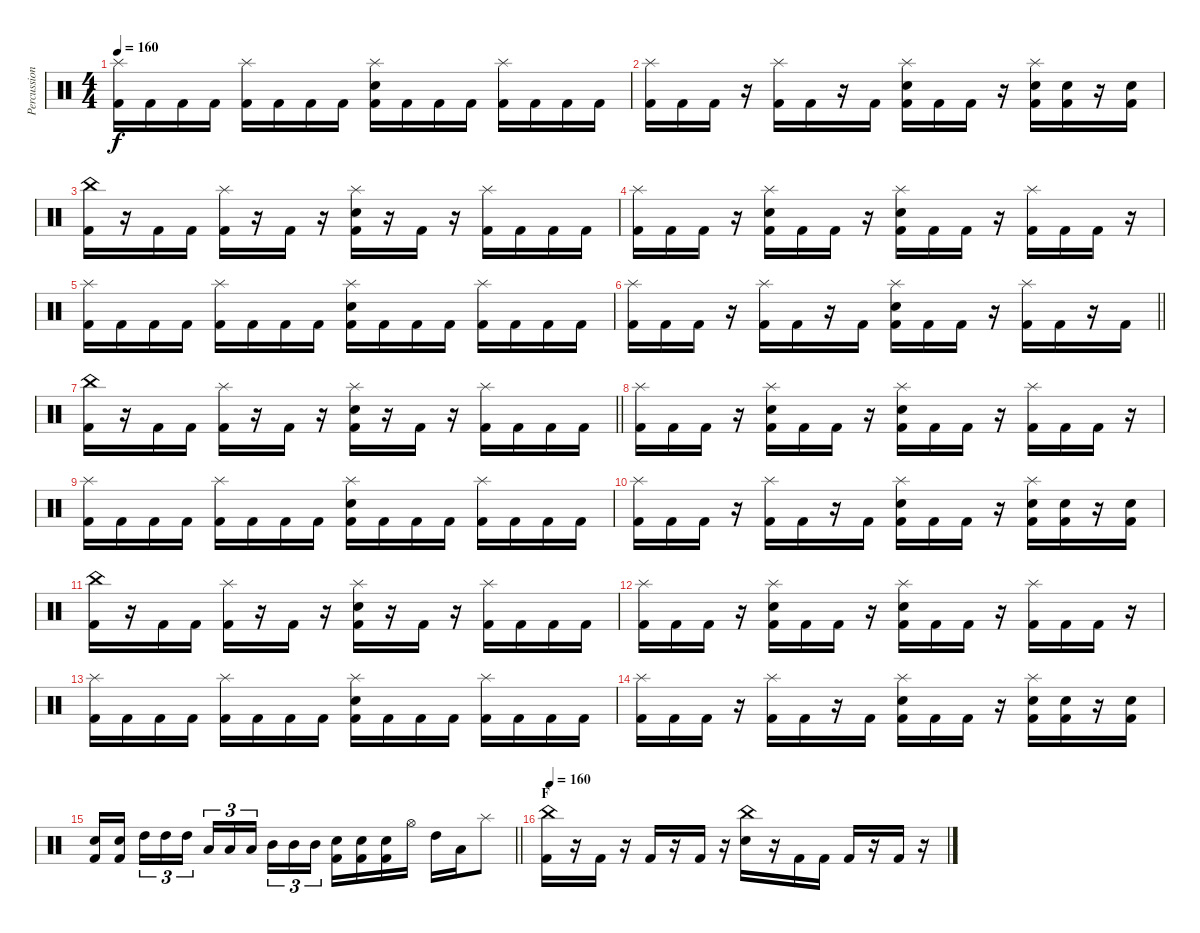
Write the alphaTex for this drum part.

\track ("Percussion" "Percussion") {instrument percussion}
\staff {score}
\articulation defaults
\ts (4 4)
\tempo 160
\clef neutral
\ks c
("Splash (hit)" "Kick (hit) 2").16{dy f} "Kick (hit) 2".16 "Kick (hit) 2".16 "Kick (hit) 2".16 ("Splash (hit)" "Kick (hit) 2").16 "Kick (hit) 2".16 "Kick (hit) 2".16 "Kick (hit) 2".16 ("Splash (hit)" "Electric Snare (hit)" "Kick (hit) 2").16 "Kick (hit) 2".16 "Kick (hit) 2".16 "Kick (hit) 2".16 ("Splash (hit)" "Kick (hit) 2").16 "Kick (hit) 2".16 "Kick (hit) 2".16 "Kick (hit) 2".16 |
("Splash (hit)" "Kick (hit) 2").16 "Kick (hit) 2".16 "Kick (hit) 2".16 r.16 ("Splash (hit)" "Kick (hit) 2").16 "Kick (hit) 2".16 r.16 "Kick (hit) 2".16 ("Splash (hit)" "Electric Snare (hit)" "Kick (hit) 2").16 "Kick (hit) 2".16 "Kick (hit) 2".16 r.16 ("Splash (hit)" "Electric Snare (hit)" "Kick (hit) 2").16 ("Electric Snare (hit)" "Kick (hit) 2").16 r.16 ("Electric Snare (hit)" "Kick (hit) 2").16 |
("China (hit)" "Kick (hit) 2").16 r.16 "Kick (hit) 2".16 "Kick (hit) 2".16 ("Splash (hit)" "Kick (hit) 2").16 r.16 "Kick (hit) 2".16 r.16 ("Splash (hit)" "Electric Snare (hit)" "Kick (hit) 2").16 r.16 "Kick (hit) 2".16 r.16 ("Splash (hit)" "Kick (hit) 2").16 "Kick (hit) 2".16 "Kick (hit) 2".16 "Kick (hit) 2".16 |
("Splash (hit)" "Kick (hit) 2").16 "Kick (hit) 2".16 "Kick (hit) 2".16 r.16 ("Splash (hit)" "Electric Snare (hit)" "Kick (hit) 2").16 "Kick (hit) 2".16 "Kick (hit) 2".16 r.16 ("Splash (hit)" "Electric Snare (hit)" "Kick (hit) 2").16 "Kick (hit) 2".16 "Kick (hit) 2".16 r.16 ("Splash (hit)" "Kick (hit) 2").16 "Kick (hit) 2".16 "Kick (hit) 2".16 r.16 |
("Splash (hit)" "Kick (hit) 2").16 "Kick (hit) 2".16 "Kick (hit) 2".16 "Kick (hit) 2".16 ("Splash (hit)" "Kick (hit) 2").16 "Kick (hit) 2".16 "Kick (hit) 2".16 "Kick (hit) 2".16 ("Splash (hit)" "Electric Snare (hit)" "Kick (hit) 2").16 "Kick (hit) 2".16 "Kick (hit) 2".16 "Kick (hit) 2".16 ("Splash (hit)" "Kick (hit) 2").16 "Kick (hit) 2".16 "Kick (hit) 2".16 "Kick (hit) 2".16 |
\barLineRight lightlight
("Splash (hit)" "Kick (hit) 2").16 "Kick (hit) 2".16 "Kick (hit) 2".16 r.16 ("Splash (hit)" "Kick (hit) 2").16 "Kick (hit) 2".16 r.16 "Kick (hit) 2".16 ("Splash (hit)" "Electric Snare (hit)" "Kick (hit) 2").16 "Kick (hit) 2".16 "Kick (hit) 2".16 r.16 ("Splash (hit)" "Kick (hit) 2").16 "Kick (hit) 2".16 r.16 "Kick (hit) 2".16 |
\barLineRight lightlight
("China (hit)" "Kick (hit) 2").16 r.16 "Kick (hit) 2".16 "Kick (hit) 2".16 ("Splash (hit)" "Kick (hit) 2").16 r.16 "Kick (hit) 2".16 r.16 ("Splash (hit)" "Electric Snare (hit)" "Kick (hit) 2").16 r.16 "Kick (hit) 2".16 r.16 ("Splash (hit)" "Kick (hit) 2").16 "Kick (hit) 2".16 "Kick (hit) 2".16 "Kick (hit) 2".16 |
("Splash (hit)" "Kick (hit) 2").16 "Kick (hit) 2".16 "Kick (hit) 2".16 r.16 ("Splash (hit)" "Electric Snare (hit)" "Kick (hit) 2").16 "Kick (hit) 2".16 "Kick (hit) 2".16 r.16 ("Splash (hit)" "Electric Snare (hit)" "Kick (hit) 2").16 "Kick (hit) 2".16 "Kick (hit) 2".16 r.16 ("Splash (hit)" "Kick (hit) 2").16 "Kick (hit) 2".16 "Kick (hit) 2".16 r.16 |
("Splash (hit)" "Kick (hit) 2").16 "Kick (hit) 2".16 "Kick (hit) 2".16 "Kick (hit) 2".16 ("Splash (hit)" "Kick (hit) 2").16 "Kick (hit) 2".16 "Kick (hit) 2".16 "Kick (hit) 2".16 ("Splash (hit)" "Electric Snare (hit)" "Kick (hit) 2").16 "Kick (hit) 2".16 "Kick (hit) 2".16 "Kick (hit) 2".16 ("Splash (hit)" "Kick (hit) 2").16 "Kick (hit) 2".16 "Kick (hit) 2".16 "Kick (hit) 2".16 |
("Splash (hit)" "Kick (hit) 2").16 "Kick (hit) 2".16 "Kick (hit) 2".16 r.16 ("Splash (hit)" "Kick (hit) 2").16 "Kick (hit) 2".16 r.16 "Kick (hit) 2".16 ("Splash (hit)" "Electric Snare (hit)" "Kick (hit) 2").16 "Kick (hit) 2".16 "Kick (hit) 2".16 r.16 ("Splash (hit)" "Electric Snare (hit)" "Kick (hit) 2").16 ("Electric Snare (hit)" "Kick (hit) 2").16 r.16 ("Electric Snare (hit)" "Kick (hit) 2").16 |
("China (hit)" "Kick (hit) 2").16 r.16 "Kick (hit) 2".16 "Kick (hit) 2".16 ("Splash (hit)" "Kick (hit) 2").16 r.16 "Kick (hit) 2".16 r.16 ("Splash (hit)" "Electric Snare (hit)" "Kick (hit) 2").16 r.16 "Kick (hit) 2".16 r.16 ("Splash (hit)" "Kick (hit) 2").16 "Kick (hit) 2".16 "Kick (hit) 2".16 "Kick (hit) 2".16 |
("Splash (hit)" "Kick (hit) 2").16 "Kick (hit) 2".16 "Kick (hit) 2".16 r.16 ("Splash (hit)" "Electric Snare (hit)" "Kick (hit) 2").16 "Kick (hit) 2".16 "Kick (hit) 2".16 r.16 ("Splash (hit)" "Electric Snare (hit)" "Kick (hit) 2").16 "Kick (hit) 2".16 "Kick (hit) 2".16 r.16 ("Splash (hit)" "Kick (hit) 2").16 "Kick (hit) 2".16 "Kick (hit) 2".16 r.16 |
("Splash (hit)" "Kick (hit) 2").16 "Kick (hit) 2".16 "Kick (hit) 2".16 "Kick (hit) 2".16 ("Splash (hit)" "Kick (hit) 2").16 "Kick (hit) 2".16 "Kick (hit) 2".16 "Kick (hit) 2".16 ("Splash (hit)" "Electric Snare (hit)" "Kick (hit) 2").16 "Kick (hit) 2".16 "Kick (hit) 2".16 "Kick (hit) 2".16 ("Splash (hit)" "Kick (hit) 2").16 "Kick (hit) 2".16 "Kick (hit) 2".16 "Kick (hit) 2".16 |
("Splash (hit)" "Kick (hit) 2").16 "Kick (hit) 2".16 "Kick (hit) 2".16 r.16 ("Splash (hit)" "Kick (hit) 2").16 "Kick (hit) 2".16 r.16 "Kick (hit) 2".16 ("Splash (hit)" "Electric Snare (hit)" "Kick (hit) 2").16 "Kick (hit) 2".16 "Kick (hit) 2".16 r.16 ("Splash (hit)" "Electric Snare (hit)" "Kick (hit) 2").16 ("Electric Snare (hit)" "Kick (hit) 2").16 r.16 ("Electric Snare (hit)" "Kick (hit) 2").16 |
\barLineRight lightlight
("Electric Snare (hit)" "Kick (hit) 2").16 ("Electric Snare (hit)" "Kick (hit) 2").16 "High Tom (hit)".16{tu (3 2)} "High Tom (hit)".16{tu (3 2)} "High Tom (hit)".16{tu (3 2)} "Low Tom (hit)".16{tu (3 2)} "Low Tom (hit)".16{tu (3 2)} "Low Tom (hit)".16{tu (3 2)} "Mid Tom (hit)".16{tu (3 2)} "Mid Tom (hit)".16{tu (3 2)} "Mid Tom (hit)".16{tu (3 2)} ("Electric Snare (hit)" "Kick (hit) 2").16 ("Electric Snare (hit)" "Kick (hit) 2").16 ("Electric Snare (hit)" "Kick (hit) 2").16 "Hi-Hat (open)".16 "High Tom (hit)".16 "Low Tom (hit)".16 "Splash (hit)".8 |
\section ("" "F")
\tempo 160
("China (hit)" "Kick (hit) 2").16 r.16 "Kick (hit) 2".16 r.16 "Kick (hit) 2".16 r.16 "Kick (hit) 2".16 r.16 ("China (hit)" "Electric Snare (hit)").16 r.16 "Kick (hit) 2".16 "Kick (hit) 2".16 "Kick (hit) 2".16 r.16 "Kick (hit) 2".16 r.16
